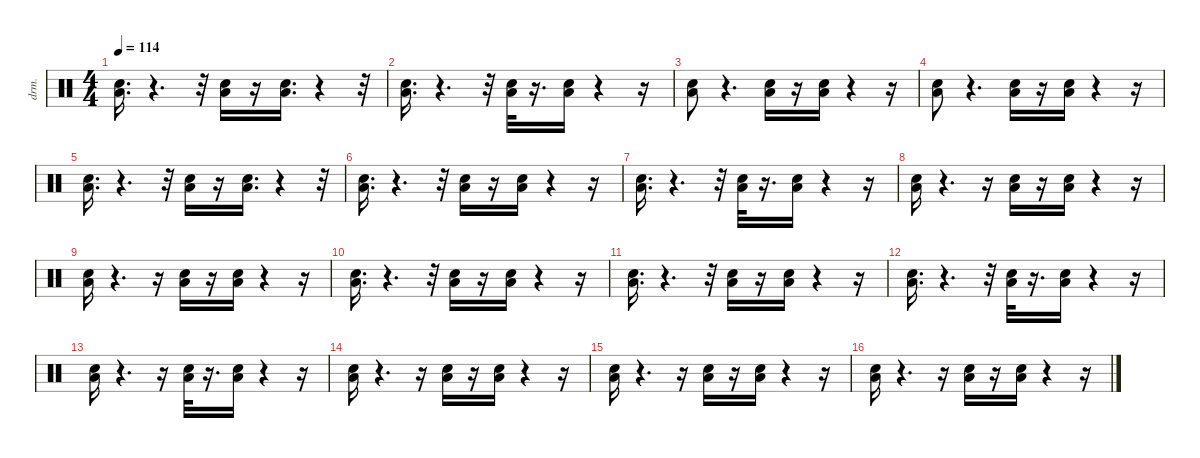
\defaultSystemsLayout 4
\hideDynamics
\bracketExtendMode nobrackets
\otherSystemsTrackNameOrientation horizontal
\track ("Taiko drum" "drm.") {instrument percussion}
\staff {score}
\articulation defaults
\ts (4 4)
\tempo 114
\clef neutral
\ks c
("Low Floor Tom (hit)" "Snare (hit) 2").16{d dy fff} r.4{d} r.32 ("Low Floor Tom (hit)" "Snare (hit) 2").16 r.16 ("Low Floor Tom (hit)" "Snare (hit) 2").16{d} r.4 r.32 |
("Low Floor Tom (hit)" "Snare (hit) 2").16{d} r.4{d} r.32 ("Snare (hit) 2" "Low Floor Tom (hit)").32{dy f} r.16{d} ("Low Floor Tom (hit)" "Snare (hit) 2").16{dy fff} r.4 r.16 |
("Low Floor Tom (hit)" "Snare (hit) 2").8 r.4{d} ("Low Floor Tom (hit)" "Snare (hit) 2").16 r.16 ("Low Floor Tom (hit)" "Snare (hit) 2").16 r.4 r.16 |
("Low Floor Tom (hit)" "Snare (hit) 2").8 r.4{d} ("Low Floor Tom (hit)" "Snare (hit) 2").16 r.16 ("Low Floor Tom (hit)" "Snare (hit) 2").16 r.4 r.16 |
("Low Floor Tom (hit)" "Snare (hit) 2").16{d} r.4{d} r.32 ("Low Floor Tom (hit)" "Snare (hit) 2").16 r.16 ("Low Floor Tom (hit)" "Snare (hit) 2").16{d} r.4 r.32 |
("Low Floor Tom (hit)" "Snare (hit) 2").16{d} r.4{d} r.32 ("Low Floor Tom (hit)" "Snare (hit) 2").16 r.16 ("Low Floor Tom (hit)" "Snare (hit) 2").16 r.4 r.16 |
("Low Floor Tom (hit)" "Snare (hit) 2").16{d} r.4{d} r.32 ("Low Floor Tom (hit)" "Snare (hit) 2").32 r.16{d} ("Low Floor Tom (hit)" "Snare (hit) 2").16 r.4 r.16 |
("Low Floor Tom (hit)" "Snare (hit) 2").16 r.4{d} r.16 ("Low Floor Tom (hit)" "Snare (hit) 2").16 r.16 ("Low Floor Tom (hit)" "Snare (hit) 2").16 r.4 r.16 |
("Low Floor Tom (hit)" "Snare (hit) 2").16 r.4{d} r.16 ("Low Floor Tom (hit)" "Snare (hit) 2").16 r.16 ("Low Floor Tom (hit)" "Snare (hit) 2").16 r.4 r.16 |
("Low Floor Tom (hit)" "Snare (hit) 2").16{d} r.4{d} r.32 ("Low Floor Tom (hit)" "Snare (hit) 2").16 r.16 ("Low Floor Tom (hit)" "Snare (hit) 2").16 r.4 r.16 |
("Low Floor Tom (hit)" "Snare (hit) 2").16{d} r.4{d} r.32 ("Low Floor Tom (hit)" "Snare (hit) 2").16 r.16 ("Low Floor Tom (hit)" "Snare (hit) 2").16 r.4 r.16 |
("Low Floor Tom (hit)" "Snare (hit) 2").16{d} r.4{d} r.32 ("Low Floor Tom (hit)" "Snare (hit) 2").32 r.16{d} ("Low Floor Tom (hit)" "Snare (hit) 2").16 r.4 r.16 |
("Low Floor Tom (hit)" "Snare (hit) 2").16 r.4{d} r.16 ("Low Floor Tom (hit)" "Snare (hit) 2").32 r.16{d} ("Low Floor Tom (hit)" "Snare (hit) 2").16 r.4 r.16 |
("Snare (hit) 2" "Low Floor Tom (hit)").16 r.4{d} r.16 ("Low Floor Tom (hit)" "Snare (hit) 2").16 r.16 ("Low Floor Tom (hit)" "Snare (hit) 2").16 r.4 r.16 |
("Snare (hit) 2" "Low Floor Tom (hit)").16 r.4{d} r.16 ("Low Floor Tom (hit)" "Snare (hit) 2").16 r.16 ("Low Floor Tom (hit)" "Snare (hit) 2").16 r.4 r.16 |
("Low Floor Tom (hit)" "Snare (hit) 2").16 r.4{d} r.16 ("Low Floor Tom (hit)" "Snare (hit) 2").16 r.16 ("Low Floor Tom (hit)" "Snare (hit) 2").16 r.4 r.16
